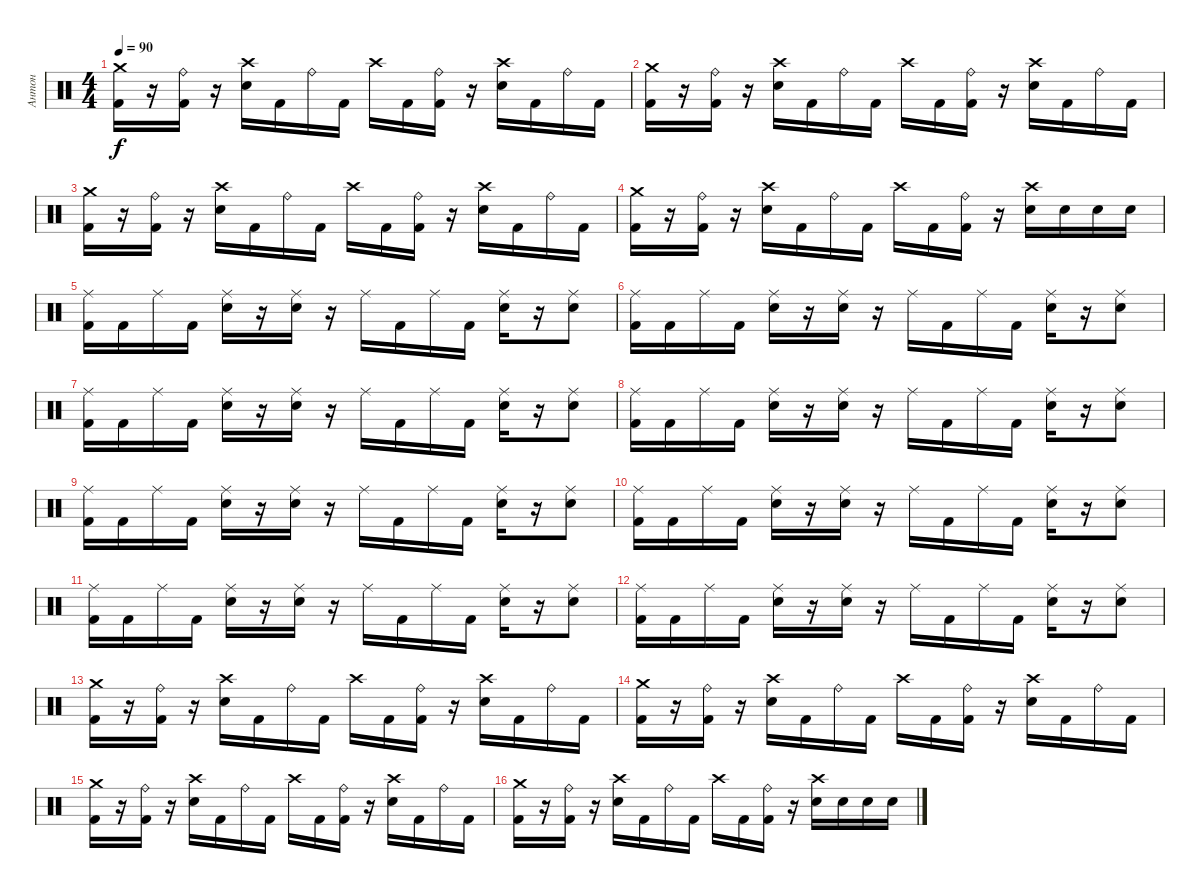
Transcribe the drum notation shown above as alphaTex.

\track ("Антон" "Антон") {instrument percussion}
\staff {score}
\articulation defaults
\ts (4 4)
\tempo 90
\clef neutral
\ks c
("Crash medium (hit)" "Kick (hit) 2").16{dy f} r.16 ("Ride (bell)" "Kick (hit) 2").16 r.16 ("Crash high (hit)" "Electric Snare (hit)").16 "Kick (hit) 2".16 "Ride (bell)".16 "Kick (hit) 2".16 "Crash high (hit)".16 "Kick (hit) 2".16 ("Ride (bell)" "Kick (hit) 2").16 r.16 ("Crash high (hit)" "Electric Snare (hit)").16 "Kick (hit) 2".16 "Ride (bell)".16 "Kick (hit) 2".16 |
("Crash medium (hit)" "Kick (hit) 2").16 r.16 ("Ride (bell)" "Kick (hit) 2").16 r.16 ("Crash high (hit)" "Electric Snare (hit)").16 "Kick (hit) 2".16 "Ride (bell)".16 "Kick (hit) 2".16 "Crash high (hit)".16 "Kick (hit) 2".16 ("Ride (bell)" "Kick (hit) 2").16 r.16 ("Crash high (hit)" "Electric Snare (hit)").16 "Kick (hit) 2".16 "Ride (bell)".16 "Kick (hit) 2".16 |
("Crash medium (hit)" "Kick (hit) 2").16 r.16 ("Ride (bell)" "Kick (hit) 2").16 r.16 ("Crash high (hit)" "Electric Snare (hit)").16 "Kick (hit) 2".16 "Ride (bell)".16 "Kick (hit) 2".16 "Crash high (hit)".16 "Kick (hit) 2".16 ("Ride (bell)" "Kick (hit) 2").16 r.16 ("Crash high (hit)" "Electric Snare (hit)").16 "Kick (hit) 2".16 "Ride (bell)".16 "Kick (hit) 2".16 |
("Crash medium (hit)" "Kick (hit) 2").16 r.16 ("Ride (bell)" "Kick (hit) 2").16 r.16 ("Crash high (hit)" "Electric Snare (hit)").16 "Kick (hit) 2".16 "Ride (bell)".16 "Kick (hit) 2".16 "Crash high (hit)".16 "Kick (hit) 2".16 ("Ride (bell)" "Kick (hit) 2").16 r.16 ("Crash high (hit)" "Electric Snare (hit)").16 "Electric Snare (hit)".16 "Electric Snare (hit)".16 "Electric Snare (hit)".16 |
("Ride (middle)" "Kick (hit) 2").16 "Kick (hit) 2".16 "Ride (middle)".16 "Kick (hit) 2".16 ("Ride (middle)" "Electric Snare (hit)").16 r.16 ("Ride (middle)" "Electric Snare (hit)").16 r.16 "Ride (middle)".16 "Kick (hit) 2".16 "Ride (middle)".16 "Kick (hit) 2".16 ("Ride (middle)" "Electric Snare (hit)").16 r.16 ("Ride (middle)" "Electric Snare (hit)").8 |
("Ride (middle)" "Kick (hit) 2").16 "Kick (hit) 2".16 "Ride (middle)".16 "Kick (hit) 2".16 ("Ride (middle)" "Electric Snare (hit)").16 r.16 ("Ride (middle)" "Electric Snare (hit)").16 r.16 "Ride (middle)".16 "Kick (hit) 2".16 "Ride (middle)".16 "Kick (hit) 2".16 ("Ride (middle)" "Electric Snare (hit)").16 r.16 ("Ride (middle)" "Electric Snare (hit)").8 |
("Ride (middle)" "Kick (hit) 2").16 "Kick (hit) 2".16 "Ride (middle)".16 "Kick (hit) 2".16 ("Ride (middle)" "Electric Snare (hit)").16 r.16 ("Ride (middle)" "Electric Snare (hit)").16 r.16 "Ride (middle)".16 "Kick (hit) 2".16 "Ride (middle)".16 "Kick (hit) 2".16 ("Ride (middle)" "Electric Snare (hit)").16 r.16 ("Ride (middle)" "Electric Snare (hit)").8 |
("Ride (middle)" "Kick (hit) 2").16 "Kick (hit) 2".16 "Ride (middle)".16 "Kick (hit) 2".16 ("Ride (middle)" "Electric Snare (hit)").16 r.16 ("Ride (middle)" "Electric Snare (hit)").16 r.16 "Ride (middle)".16 "Kick (hit) 2".16 "Ride (middle)".16 "Kick (hit) 2".16 ("Ride (middle)" "Electric Snare (hit)").16 r.16 ("Ride (middle)" "Electric Snare (hit)").8 |
("Ride (middle)" "Kick (hit) 2").16 "Kick (hit) 2".16 "Ride (middle)".16 "Kick (hit) 2".16 ("Ride (middle)" "Electric Snare (hit)").16 r.16 ("Ride (middle)" "Electric Snare (hit)").16 r.16 "Ride (middle)".16 "Kick (hit) 2".16 "Ride (middle)".16 "Kick (hit) 2".16 ("Ride (middle)" "Electric Snare (hit)").16 r.16 ("Ride (middle)" "Electric Snare (hit)").8 |
("Ride (middle)" "Kick (hit) 2").16 "Kick (hit) 2".16 "Ride (middle)".16 "Kick (hit) 2".16 ("Ride (middle)" "Electric Snare (hit)").16 r.16 ("Ride (middle)" "Electric Snare (hit)").16 r.16 "Ride (middle)".16 "Kick (hit) 2".16 "Ride (middle)".16 "Kick (hit) 2".16 ("Ride (middle)" "Electric Snare (hit)").16 r.16 ("Ride (middle)" "Electric Snare (hit)").8 |
("Ride (middle)" "Kick (hit) 2").16 "Kick (hit) 2".16 "Ride (middle)".16 "Kick (hit) 2".16 ("Ride (middle)" "Electric Snare (hit)").16 r.16 ("Ride (middle)" "Electric Snare (hit)").16 r.16 "Ride (middle)".16 "Kick (hit) 2".16 "Ride (middle)".16 "Kick (hit) 2".16 ("Ride (middle)" "Electric Snare (hit)").16 r.16 ("Ride (middle)" "Electric Snare (hit)").8 |
("Ride (middle)" "Kick (hit) 2").16 "Kick (hit) 2".16 "Ride (middle)".16 "Kick (hit) 2".16 ("Ride (middle)" "Electric Snare (hit)").16 r.16 ("Ride (middle)" "Electric Snare (hit)").16 r.16 "Ride (middle)".16 "Kick (hit) 2".16 "Ride (middle)".16 "Kick (hit) 2".16 ("Ride (middle)" "Electric Snare (hit)").16 r.16 ("Ride (middle)" "Electric Snare (hit)").8 |
("Crash medium (hit)" "Kick (hit) 2").16 r.16 ("Ride (bell)" "Kick (hit) 2").16 r.16 ("Crash high (hit)" "Electric Snare (hit)").16 "Kick (hit) 2".16 "Ride (bell)".16 "Kick (hit) 2".16 "Crash high (hit)".16 "Kick (hit) 2".16 ("Ride (bell)" "Kick (hit) 2").16 r.16 ("Crash high (hit)" "Electric Snare (hit)").16 "Kick (hit) 2".16 "Ride (bell)".16 "Kick (hit) 2".16 |
("Crash medium (hit)" "Kick (hit) 2").16 r.16 ("Ride (bell)" "Kick (hit) 2").16 r.16 ("Crash high (hit)" "Electric Snare (hit)").16 "Kick (hit) 2".16 "Ride (bell)".16 "Kick (hit) 2".16 "Crash high (hit)".16 "Kick (hit) 2".16 ("Ride (bell)" "Kick (hit) 2").16 r.16 ("Crash high (hit)" "Electric Snare (hit)").16 "Kick (hit) 2".16 "Ride (bell)".16 "Kick (hit) 2".16 |
("Crash medium (hit)" "Kick (hit) 2").16 r.16 ("Ride (bell)" "Kick (hit) 2").16 r.16 ("Crash high (hit)" "Electric Snare (hit)").16 "Kick (hit) 2".16 "Ride (bell)".16 "Kick (hit) 2".16 "Crash high (hit)".16 "Kick (hit) 2".16 ("Ride (bell)" "Kick (hit) 2").16 r.16 ("Crash high (hit)" "Electric Snare (hit)").16 "Kick (hit) 2".16 "Ride (bell)".16 "Kick (hit) 2".16 |
("Crash medium (hit)" "Kick (hit) 2").16 r.16 ("Ride (bell)" "Kick (hit) 2").16 r.16 ("Crash high (hit)" "Electric Snare (hit)").16 "Kick (hit) 2".16 "Ride (bell)".16 "Kick (hit) 2".16 "Crash high (hit)".16 "Kick (hit) 2".16 ("Ride (bell)" "Kick (hit) 2").16 r.16 ("Crash high (hit)" "Electric Snare (hit)").16 "Electric Snare (hit)".16 "Electric Snare (hit)".16 "Electric Snare (hit)".16
